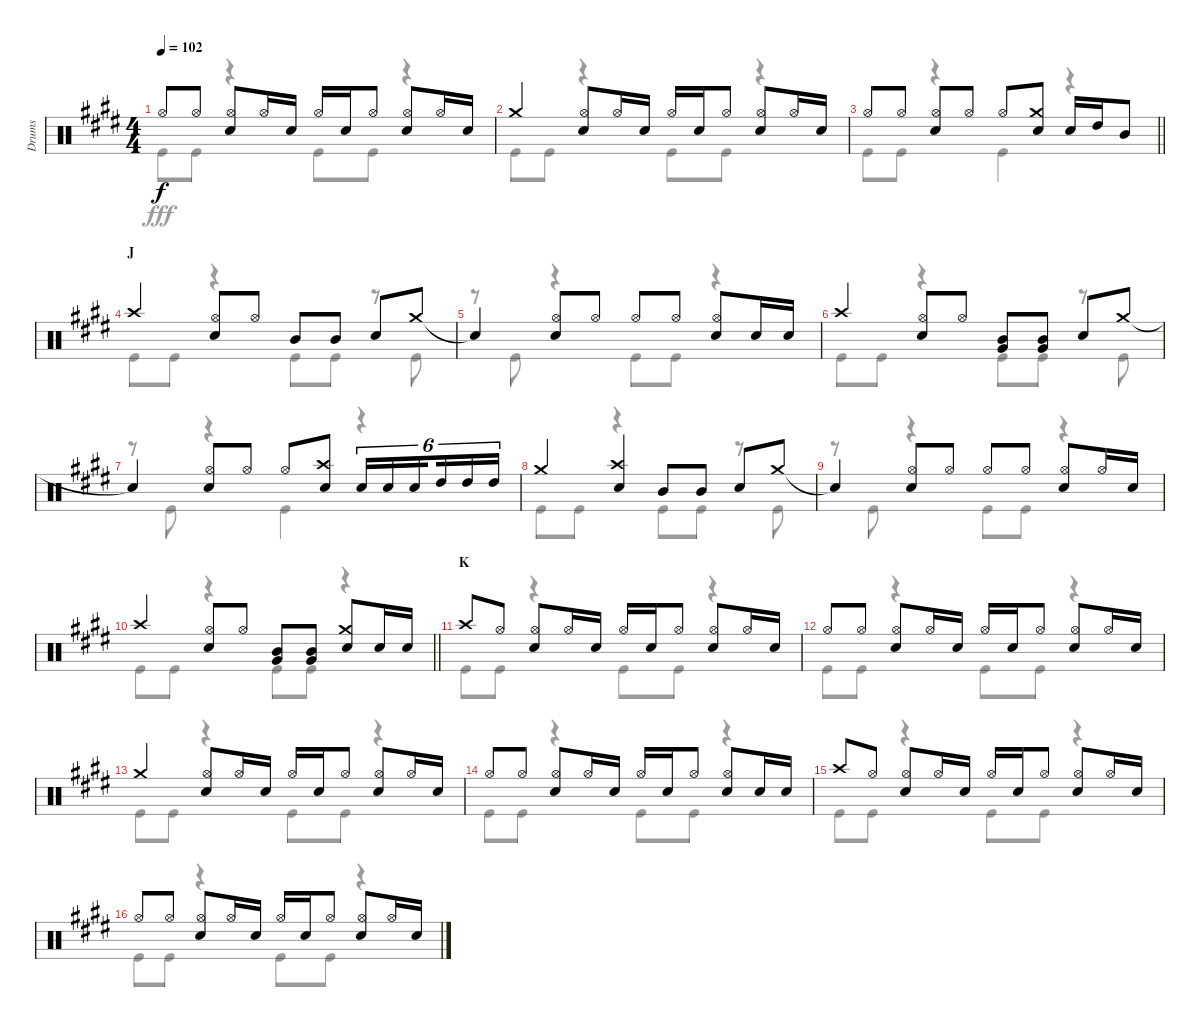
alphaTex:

\track ("Drums" "Drums") {instrument percussion}
\staff {score}
\articulation defaults
\voice
\ts (4 4)
\tempo 102
\clef neutral
\ks e "Hi-Hat (open)".8{dy f} "Hi-Hat (open)".8
("Hi-Hat (open)" "Snare (hit) 2").8 "Hi-Hat (open)".16 "Snare (hit) 2".16 "Hi-Hat (open)".16 "Snare (hit) 2".16 "Hi-Hat (open)".8 ("Hi-Hat (open)" "Snare (hit) 2").8 "Hi-Hat (open)".16 "Snare (hit) 2".16 |
"Crash medium (hit)".4 ("Hi-Hat (open)" "Snare (hit) 2").8 "Hi-Hat (open)".16 "Snare (hit) 2".16 "Hi-Hat (open)".16 "Snare (hit) 2".16 "Hi-Hat (open)".8 ("Hi-Hat (open)" "Snare (hit) 2").8 "Hi-Hat (open)".16 "Snare (hit) 2".16 |
\barLineRight lightlight "Hi-Hat (open)".8 "Hi-Hat (open)".8
("Hi-Hat (open)" "Snare (hit) 2").8 "Hi-Hat (open)".8 "Hi-Hat (open)".8 ("Crash medium (hit)" "Snare (hit) 2").8 "Snare (hit) 2".16 "High Tom (hit)".16 "Mid Tom (hit)".8 |
\section ("" "J")
"Crash high (hit)".4 ("Hi-Hat (open)" "Snare (hit) 2").8 "Hi-Hat (open)".8 "Mid Tom (hit)".8 "Mid Tom (hit)".8 "Snare (hit) 2".8 "Crash medium (hit)".8 |
"Snare (hit)"{t}.4 ("Hi-Hat (open)" "Snare (hit) 2").8 "Hi-Hat (open)".8 "Hi-Hat (open)".8 "Hi-Hat (open)".8 ("Hi-Hat (open)" "Snare (hit) 2").8 "Snare (hit) 2".16 "Snare (hit) 2".16 |
"Crash high (hit)".4 ("Hi-Hat (open)" "Snare (hit) 2").8 "Hi-Hat (open)".8 ("Mid Tom (hit)" "Very Low Tom (hit)").8 ("Mid Tom (hit)" "Very Low Tom (hit)").8 "Snare (hit) 2".8 "Crash medium (hit)".8 |
"Snare (hit)"{t}.4 ("Hi-Hat (open)" "Snare (hit) 2").8 "Hi-Hat (open)".8 "Hi-Hat (open)".8 ("Crash high (hit)" "Snare (hit) 2").8 "Snare (hit) 2".16{tu (6 4)} "Snare (hit) 2".16{tu (6 4)} "Snare (hit) 2".16{tu (6 4) beam splitsecondary} "High Tom (hit)".16{tu (6 4)} "High Tom (hit)".16{tu (6 4)} "High Tom (hit)".16{tu (6 4)} |
"Crash medium (hit)".4 ("Crash high (hit)" "Snare (hit) 2").4 "Mid Tom (hit)".8 "Mid Tom (hit)".8 "Snare (hit) 2".8 "Crash medium (hit)".8 |
"Snare (hit)"{t}.4 ("Hi-Hat (open)" "Snare (hit) 2").8 "Hi-Hat (open)".8 "Hi-Hat (open)".8 "Hi-Hat (open)".8 ("Hi-Hat (open)" "Snare (hit) 2").8 "Hi-Hat (open)".16 "Snare (hit) 2".16 |
\barLineRight lightlight "Crash high (hit)".4
("Hi-Hat (open)" "Snare (hit) 2").8 "Hi-Hat (open)".8 ("Mid Tom (hit)" "Very Low Tom (hit)").8 ("Mid Tom (hit)" "Very Low Tom (hit)").8 ("Crash medium (hit)" "Snare (hit) 2").8 "Snare (hit) 2".16 "Snare (hit) 2".16 |
\section ("" "K")
"Crash high (hit)".8 "Hi-Hat (open)".8 ("Hi-Hat (open)" "Snare (hit) 2").8 "Hi-Hat (open)".16 "Snare (hit) 2".16 "Hi-Hat (open)".16 "Snare (hit) 2".16 "Hi-Hat (open)".8 ("Hi-Hat (open)" "Snare (hit) 2").8 "Hi-Hat (open)".16 "Snare (hit) 2".16 |
"Hi-Hat (open)".8 "Hi-Hat (open)".8 ("Hi-Hat (open)" "Snare (hit) 2").8 "Hi-Hat (open)".16 "Snare (hit) 2".16 "Hi-Hat (open)".16 "Snare (hit) 2".16 "Hi-Hat (open)".8 ("Hi-Hat (open)" "Snare (hit) 2").8 "Hi-Hat (open)".16 "Snare (hit) 2".16 |
"Crash medium (hit)".4 ("Hi-Hat (open)" "Snare (hit) 2").8 "Hi-Hat (open)".16 "Snare (hit) 2".16 "Hi-Hat (open)".16 "Snare (hit) 2".16 "Hi-Hat (open)".8 ("Hi-Hat (open)" "Snare (hit) 2").8 "Hi-Hat (open)".16 "Snare (hit) 2".16 |
"Hi-Hat (open)".8 "Hi-Hat (open)".8 ("Hi-Hat (open)" "Snare (hit) 2").8 "Hi-Hat (open)".16 "Snare (hit) 2".16 "Hi-Hat (open)".16 "Snare (hit) 2".16 "Hi-Hat (open)".8 ("Hi-Hat (open)" "Snare (hit) 2").8 "Snare (hit) 2".16 "Snare (hit) 2".16 |
"Crash high (hit)".8 "Hi-Hat (open)".8 ("Hi-Hat (open)" "Snare (hit) 2").8 "Hi-Hat (open)".16 "Snare (hit) 2".16 "Hi-Hat (open)".16 "Snare (hit) 2".16 "Hi-Hat (open)".8 ("Hi-Hat (open)" "Snare (hit) 2").8 "Hi-Hat (open)".16 "Snare (hit) 2".16 |
"Hi-Hat (open)".8 "Hi-Hat (open)".8 ("Hi-Hat (open)" "Snare (hit) 2").8 "Hi-Hat (open)".16 "Snare (hit) 2".16 "Hi-Hat (open)".16 "Snare (hit) 2".16 "Hi-Hat (open)".8 ("Hi-Hat (open)" "Snare (hit) 2").8 "Hi-Hat (open)".16 "Snare (hit) 2".16
\voice
\clef neutral
\ottava regular
\simile none
\ks e "Kick (hit)".8{dy fff} "Kick (hit)".8
r.4 "Kick (hit)".8 "Kick (hit)".8 r.4 |
"Kick (hit)".8 "Kick (hit)".8 r.4 "Kick (hit)".8 "Kick (hit)".8 r.4 |
\barLineRight lightlight "Kick (hit)".8 "Kick (hit)".8
r.4 "Kick (hit)".4 r.4 |
"Kick (hit)".8 "Kick (hit)".8 r.4 "Kick (hit)".8 "Kick (hit)".8 r.8 "Kick (hit)".8 |
r.8 "Kick (hit)".8 r.4 "Kick (hit)".8 "Kick (hit)".8 r.4 |
"Kick (hit)".8 "Kick (hit)".8 r.4 "Kick (hit)".8 "Kick (hit)".8 r.8 "Kick (hit)".8 |
r.8 "Kick (hit)".8 r.4 "Kick (hit)".4 r.4 |
"Kick (hit)".8 "Kick (hit)".8 r.4 "Kick (hit)".8 "Kick (hit)".8 r.8 "Kick (hit)".8 |
r.8 "Kick (hit)".8 r.4 "Kick (hit)".8 "Kick (hit)".8 r.4 |
\barLineRight lightlight "Kick (hit)".8 "Kick (hit)".8
r.4 "Kick (hit)".8 "Kick (hit)".8 r.4 |
"Kick (hit)".8 "Kick (hit)".8 r.4 "Kick (hit)".8 "Kick (hit)".8 r.4 |
"Kick (hit)".8 "Kick (hit)".8 r.4 "Kick (hit)".8 "Kick (hit)".8 r.4 |
"Kick (hit)".8 "Kick (hit)".8 r.4 "Kick (hit)".8 "Kick (hit)".8 r.4 |
"Kick (hit)".8 "Kick (hit)".8 r.4 "Kick (hit)".8 "Kick (hit)".8 r.4 |
"Kick (hit)".8 "Kick (hit)".8 r.4 "Kick (hit)".8 "Kick (hit)".8 r.4 |
"Kick (hit)".8 "Kick (hit)".8 r.4 "Kick (hit)".8 "Kick (hit)".8 r.4
